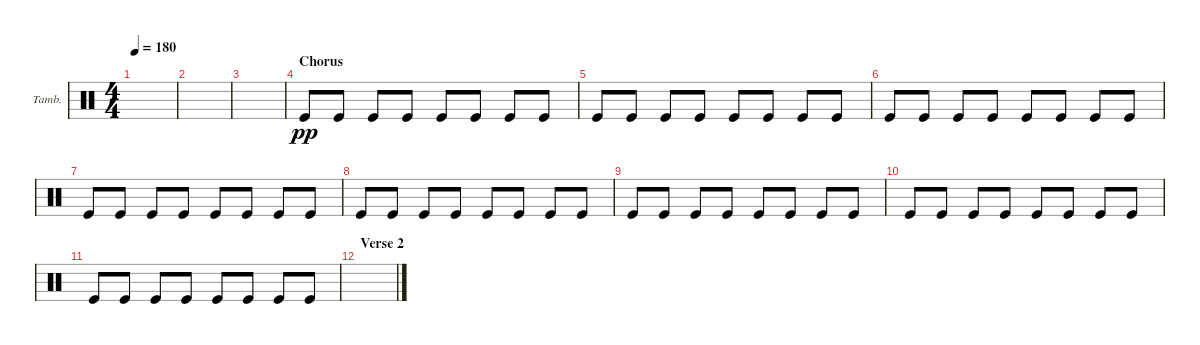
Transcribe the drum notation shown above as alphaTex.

\defaultSystemsLayout 4
\bracketExtendMode groupsimilarinstruments
\firstSystemTrackNameOrientation horizontal
\otherSystemsTrackNameOrientation horizontal
\track ("Tambourine" "Tamb.") {instrument percussion}
\staff {score}
\articulation defaults
\ts (4 4)
\tempo 180
\clef neutral
\ks c
|
|
|
\section ("" "Chorus")
"Kick (hit)".8{dy pp} "Kick (hit)".8 "Kick (hit)".8 "Kick (hit)".8 "Kick (hit)".8 "Kick (hit)".8 "Kick (hit)".8 "Kick (hit)".8 |
"Kick (hit)".8 "Kick (hit)".8 "Kick (hit)".8 "Kick (hit)".8 "Kick (hit)".8 "Kick (hit)".8 "Kick (hit)".8 "Kick (hit)".8 |
"Kick (hit)".8 "Kick (hit)".8 "Kick (hit)".8 "Kick (hit)".8 "Kick (hit)".8 "Kick (hit)".8 "Kick (hit)".8 "Kick (hit)".8 |
"Kick (hit)".8 "Kick (hit)".8 "Kick (hit)".8 "Kick (hit)".8 "Kick (hit)".8 "Kick (hit)".8 "Kick (hit)".8 "Kick (hit)".8 |
"Kick (hit)".8 "Kick (hit)".8 "Kick (hit)".8 "Kick (hit)".8 "Kick (hit)".8 "Kick (hit)".8 "Kick (hit)".8 "Kick (hit)".8 |
"Kick (hit)".8 "Kick (hit)".8 "Kick (hit)".8 "Kick (hit)".8 "Kick (hit)".8 "Kick (hit)".8 "Kick (hit)".8 "Kick (hit)".8 |
"Kick (hit)".8 "Kick (hit)".8 "Kick (hit)".8 "Kick (hit)".8 "Kick (hit)".8 "Kick (hit)".8 "Kick (hit)".8 "Kick (hit)".8 |
"Kick (hit)".8 "Kick (hit)".8 "Kick (hit)".8 "Kick (hit)".8 "Kick (hit)".8 "Kick (hit)".8 "Kick (hit)".8 "Kick (hit)".8 |
\section ("" "Verse 2")
